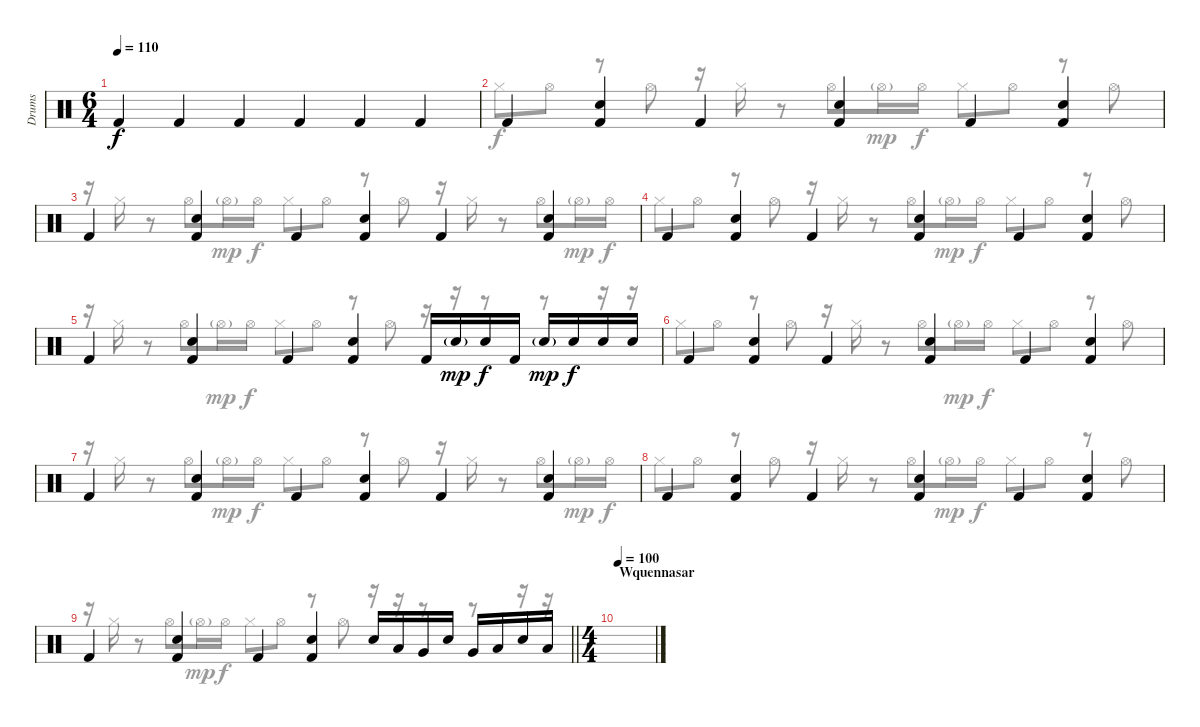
\track ("Drums" "Drums") {instrument percussion}
\staff {score}
\articulation defaults
\voice
\ts (6 4)
\tempo 110
\clef neutral
\ks c "Kick (hit) 2".4{dy f} "Kick (hit) 2".4 "Kick (hit) 2".4 "Kick (hit) 2".4 "Kick (hit) 2".4 "Kick (hit) 2".4
|
"Kick (hit) 2".4 ("Electric Snare (hit)" "Kick (hit) 2").4 "Kick (hit) 2".4 ("Electric Snare (hit)" "Kick (hit) 2").4 "Kick (hit) 2".4 ("Electric Snare (hit)" "Kick (hit) 2").4 |
"Kick (hit) 2".4 ("Electric Snare (hit)" "Kick (hit) 2").4 "Kick (hit) 2".4 ("Electric Snare (hit)" "Kick (hit) 2").4 "Kick (hit) 2".4 ("Electric Snare (hit)" "Kick (hit) 2").4 |
"Kick (hit) 2".4 ("Electric Snare (hit)" "Kick (hit) 2").4 "Kick (hit) 2".4 ("Electric Snare (hit)" "Kick (hit) 2").4 "Kick (hit) 2".4 ("Electric Snare (hit)" "Kick (hit) 2").4 |
"Kick (hit) 2".4 ("Electric Snare (hit)" "Kick (hit) 2").4 "Kick (hit) 2".4 ("Electric Snare (hit)" "Kick (hit) 2").4 "Kick (hit) 2".16 "Electric Snare (hit)"{g}.16{dy mp} "Electric Snare (hit)".16{dy f} "Kick (hit) 2".16 "Electric Snare (hit)"{g}.16{dy mp} "Electric Snare (hit)".16{dy f} "Electric Snare (hit)".16 "Electric Snare (hit)".16 |
"Kick (hit) 2".4 ("Electric Snare (hit)" "Kick (hit) 2").4 "Kick (hit) 2".4 ("Electric Snare (hit)" "Kick (hit) 2").4 "Kick (hit) 2".4 ("Electric Snare (hit)" "Kick (hit) 2").4 |
"Kick (hit) 2".4 ("Electric Snare (hit)" "Kick (hit) 2").4 "Kick (hit) 2".4 ("Electric Snare (hit)" "Kick (hit) 2").4 "Kick (hit) 2".4 ("Electric Snare (hit)" "Kick (hit) 2").4 |
"Kick (hit) 2".4 ("Electric Snare (hit)" "Kick (hit) 2").4 "Kick (hit) 2".4 ("Electric Snare (hit)" "Kick (hit) 2").4 "Kick (hit) 2".4 ("Electric Snare (hit)" "Kick (hit) 2").4 |
\barLineRight lightlight "Kick (hit) 2".4
("Electric Snare (hit)" "Kick (hit) 2").4 "Kick (hit) 2".4 ("Electric Snare (hit)" "Kick (hit) 2").4 "Electric Snare (hit)".16 "Low Tom (hit)".16 "Very Low Tom (hit)".16 "Electric Snare (hit)".16 "Very Low Tom (hit)".16 "Low Floor Tom (hit)".16 "Electric Snare (hit)".16 "Low Floor Tom (hit)".16 |
\ts (4 4)
\section ("" "Wquennasar")
\tempo 100
|
|
|
|
|
|
\voice
\clef neutral
\ottava regular
\simile none
\ks c
|
"Hi-Hat (closed)".8 "Hi-Hat (open)".8 r.8 "Hi-Hat (open)".8 r.16 "Hi-Hat (closed)".16 r.8 "Hi-Hat (open)".8 "Hi-Hat (open)"{g}.16{dy mp} "Hi-Hat (open)".16{dy f} "Hi-Hat (closed)".8 "Hi-Hat (open)".8 r.8 "Hi-Hat (open)".8 |
r.16 "Hi-Hat (closed)".16 r.8 "Hi-Hat (open)".8 "Hi-Hat (open)"{g}.16{dy mp} "Hi-Hat (open)".16{dy f} "Hi-Hat (closed)".8 "Hi-Hat (open)".8 r.8 "Hi-Hat (open)".8 r.16 "Hi-Hat (closed)".16 r.8 "Hi-Hat (open)".8 "Hi-Hat (open)"{g}.16{dy mp} "Hi-Hat (open)".16{dy f} |
"Hi-Hat (closed)".8 "Hi-Hat (open)".8 r.8 "Hi-Hat (open)".8 r.16 "Hi-Hat (closed)".16 r.8 "Hi-Hat (open)".8 "Hi-Hat (open)"{g}.16{dy mp} "Hi-Hat (open)".16{dy f} "Hi-Hat (closed)".8 "Hi-Hat (open)".8 r.8 "Hi-Hat (open)".8 |
r.16 "Hi-Hat (closed)".16 r.8 "Hi-Hat (open)".8 "Hi-Hat (open)"{g}.16{dy mp} "Hi-Hat (open)".16{dy f} "Hi-Hat (closed)".8 "Hi-Hat (open)".8 r.8 "Hi-Hat (open)".8 r.16 r.16 r.8 r.8 r.16 r.16 |
"Hi-Hat (closed)".8 "Hi-Hat (open)".8 r.8 "Hi-Hat (open)".8 r.16 "Hi-Hat (closed)".16 r.8 "Hi-Hat (open)".8 "Hi-Hat (open)"{g}.16{dy mp} "Hi-Hat (open)".16{dy f} "Hi-Hat (closed)".8 "Hi-Hat (open)".8 r.8 "Hi-Hat (open)".8 |
r.16 "Hi-Hat (closed)".16 r.8 "Hi-Hat (open)".8 "Hi-Hat (open)"{g}.16{dy mp} "Hi-Hat (open)".16{dy f} "Hi-Hat (closed)".8 "Hi-Hat (open)".8 r.8 "Hi-Hat (open)".8 r.16 "Hi-Hat (closed)".16 r.8 "Hi-Hat (open)".8 "Hi-Hat (open)"{g}.16{dy mp} "Hi-Hat (open)".16{dy f} |
"Hi-Hat (closed)".8 "Hi-Hat (open)".8 r.8 "Hi-Hat (open)".8 r.16 "Hi-Hat (closed)".16 r.8 "Hi-Hat (open)".8 "Hi-Hat (open)"{g}.16{dy mp} "Hi-Hat (open)".16{dy f} "Hi-Hat (closed)".8 "Hi-Hat (open)".8 r.8 "Hi-Hat (open)".8 |
\barLineRight lightlight
r.16 "Hi-Hat (closed)".16 r.8 "Hi-Hat (open)".8 "Hi-Hat (open)"{g}.16{dy mp} "Hi-Hat (open)".16{dy f} "Hi-Hat (closed)".8 "Hi-Hat (open)".8 r.8 "Hi-Hat (open)".8 r.16 r.16 r.8 r.8 r.16 r.16 |
|
|
|
|
|
|
